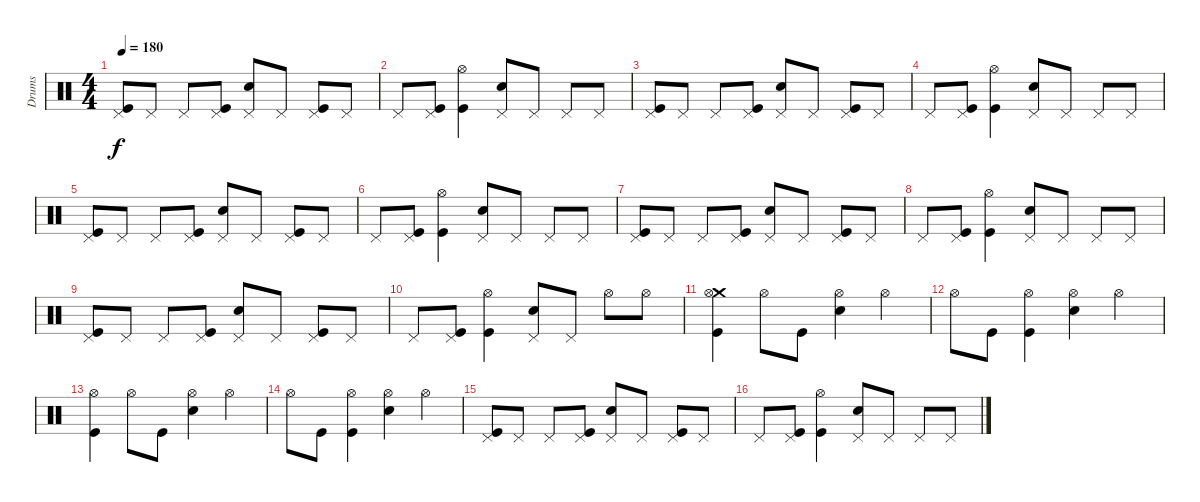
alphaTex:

\track ("Drums" "Drums") {instrument percussion}
\staff {score}
\articulation defaults
\ts (4 4)
\tempo 180
\clef neutral
\ks c
("Pedal Hi-Hat (hit)" "Kick (hit)").8{dy f} "Pedal Hi-Hat (hit)".8 "Pedal Hi-Hat (hit)".8 ("Pedal Hi-Hat (hit)" "Kick (hit)").8 ("Pedal Hi-Hat (hit)" "Electric Snare (hit)").8 "Pedal Hi-Hat (hit)".8 ("Pedal Hi-Hat (hit)" "Kick (hit)").8 "Pedal Hi-Hat (hit)".8 |
"Pedal Hi-Hat (hit)".8 ("Pedal Hi-Hat (hit)" "Kick (hit)").8 ("Hi-Hat (open)" "Kick (hit)").4 ("Pedal Hi-Hat (hit)" "Electric Snare (hit)").8 "Pedal Hi-Hat (hit)".8 "Pedal Hi-Hat (hit)".8 "Pedal Hi-Hat (hit)".8 |
("Pedal Hi-Hat (hit)" "Kick (hit)").8 "Pedal Hi-Hat (hit)".8 "Pedal Hi-Hat (hit)".8 ("Pedal Hi-Hat (hit)" "Kick (hit)").8 ("Pedal Hi-Hat (hit)" "Electric Snare (hit)").8 "Pedal Hi-Hat (hit)".8 ("Pedal Hi-Hat (hit)" "Kick (hit)").8 "Pedal Hi-Hat (hit)".8 |
"Pedal Hi-Hat (hit)".8 ("Pedal Hi-Hat (hit)" "Kick (hit)").8 ("Hi-Hat (open)" "Kick (hit)").4 ("Pedal Hi-Hat (hit)" "Electric Snare (hit)").8 "Pedal Hi-Hat (hit)".8 "Pedal Hi-Hat (hit)".8 "Pedal Hi-Hat (hit)".8 |
("Pedal Hi-Hat (hit)" "Kick (hit)").8 "Pedal Hi-Hat (hit)".8 "Pedal Hi-Hat (hit)".8 ("Pedal Hi-Hat (hit)" "Kick (hit)").8 ("Pedal Hi-Hat (hit)" "Electric Snare (hit)").8 "Pedal Hi-Hat (hit)".8 ("Pedal Hi-Hat (hit)" "Kick (hit)").8 "Pedal Hi-Hat (hit)".8 |
"Pedal Hi-Hat (hit)".8 ("Pedal Hi-Hat (hit)" "Kick (hit)").8 ("Hi-Hat (open)" "Kick (hit)").4 ("Pedal Hi-Hat (hit)" "Electric Snare (hit)").8 "Pedal Hi-Hat (hit)".8 "Pedal Hi-Hat (hit)".8 "Pedal Hi-Hat (hit)".8 |
("Pedal Hi-Hat (hit)" "Kick (hit)").8 "Pedal Hi-Hat (hit)".8 "Pedal Hi-Hat (hit)".8 ("Pedal Hi-Hat (hit)" "Kick (hit)").8 ("Pedal Hi-Hat (hit)" "Electric Snare (hit)").8 "Pedal Hi-Hat (hit)".8 ("Pedal Hi-Hat (hit)" "Kick (hit)").8 "Pedal Hi-Hat (hit)".8 |
"Pedal Hi-Hat (hit)".8 ("Pedal Hi-Hat (hit)" "Kick (hit)").8 ("Hi-Hat (open)" "Kick (hit)").4 ("Pedal Hi-Hat (hit)" "Electric Snare (hit)").8 "Pedal Hi-Hat (hit)".8 "Pedal Hi-Hat (hit)".8 "Pedal Hi-Hat (hit)".8 |
("Pedal Hi-Hat (hit)" "Kick (hit)").8 "Pedal Hi-Hat (hit)".8 "Pedal Hi-Hat (hit)".8 ("Pedal Hi-Hat (hit)" "Kick (hit)").8 ("Pedal Hi-Hat (hit)" "Electric Snare (hit)").8 "Pedal Hi-Hat (hit)".8 ("Pedal Hi-Hat (hit)" "Kick (hit)").8 "Pedal Hi-Hat (hit)".8 |
"Pedal Hi-Hat (hit)".8 ("Pedal Hi-Hat (hit)" "Kick (hit)").8 ("Hi-Hat (open)" "Kick (hit)").4 ("Pedal Hi-Hat (hit)" "Electric Snare (hit)").8 "Pedal Hi-Hat (hit)".8 "Hi-Hat (open)".8 "Hi-Hat (open)".8 |
("Crash medium (hit)" "Hi-Hat (open)" "Kick (hit)").4 "Hi-Hat (open)".8 "Kick (hit)".8 ("Hi-Hat (open)" "Electric Snare (hit)").4 "Hi-Hat (open)".4 |
"Hi-Hat (open)".8 "Kick (hit)".8 ("Hi-Hat (open)" "Kick (hit)").4 ("Hi-Hat (open)" "Electric Snare (hit)").4 "Hi-Hat (open)".4 |
("Hi-Hat (open)" "Kick (hit)").4 "Hi-Hat (open)".8 "Kick (hit)".8 ("Hi-Hat (open)" "Electric Snare (hit)").4 "Hi-Hat (open)".4 |
"Hi-Hat (open)".8 "Kick (hit)".8 ("Hi-Hat (open)" "Kick (hit)").4 ("Hi-Hat (open)" "Electric Snare (hit)").4 "Hi-Hat (open)".4 |
("Pedal Hi-Hat (hit)" "Kick (hit)").8 "Pedal Hi-Hat (hit)".8 "Pedal Hi-Hat (hit)".8 ("Pedal Hi-Hat (hit)" "Kick (hit)").8 ("Pedal Hi-Hat (hit)" "Electric Snare (hit)").8 "Pedal Hi-Hat (hit)".8 ("Pedal Hi-Hat (hit)" "Kick (hit)").8 "Pedal Hi-Hat (hit)".8 |
"Pedal Hi-Hat (hit)".8 ("Pedal Hi-Hat (hit)" "Kick (hit)").8 ("Hi-Hat (open)" "Kick (hit)").4 ("Pedal Hi-Hat (hit)" "Electric Snare (hit)").8 "Pedal Hi-Hat (hit)".8 "Pedal Hi-Hat (hit)".8 "Pedal Hi-Hat (hit)".8
